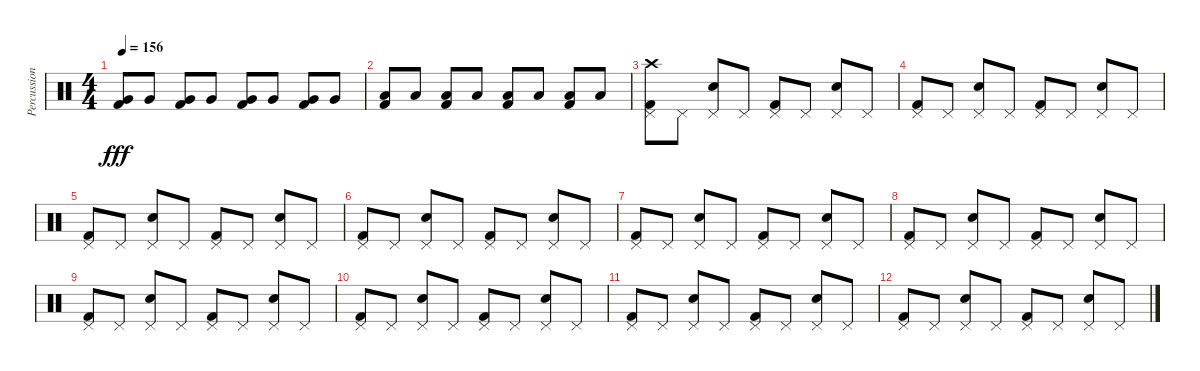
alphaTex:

\track ("Percussion" "Percussion") {instrument percussion}
\staff {score}
\articulation defaults
\ts (4 4)
\tempo 156
\clef neutral
\ks c
("Very Low Tom (hit)" "Kick (hit) 2").8{dy fff} "Very Low Tom (hit)".8 ("Very Low Tom (hit)" "Kick (hit) 2").8 "Very Low Tom (hit)".8 ("Very Low Tom (hit)" "Kick (hit) 2").8 "Very Low Tom (hit)".8 ("Very Low Tom (hit)" "Kick (hit) 2").8 "Very Low Tom (hit)".8 |
("Low Floor Tom (hit)" "Kick (hit) 2").8 "Low Floor Tom (hit)".8 ("Low Floor Tom (hit)" "Kick (hit) 2").8 "Low Floor Tom (hit)".8 ("Low Floor Tom (hit)" "Kick (hit) 2").8 "Low Floor Tom (hit)".8 ("Low Floor Tom (hit)" "Kick (hit) 2").8 "Low Floor Tom (hit)".8 |
("Pedal Hi-Hat (hit)" "Kick (hit) 2" "Crash high (hit)").8 "Pedal Hi-Hat (hit)".8 ("Pedal Hi-Hat (hit)" "Electric Snare (hit)").8 "Pedal Hi-Hat (hit)".8 ("Pedal Hi-Hat (hit)" "Kick (hit) 2").8 "Pedal Hi-Hat (hit)".8 ("Pedal Hi-Hat (hit)" "Electric Snare (hit)").8 "Pedal Hi-Hat (hit)".8 |
("Pedal Hi-Hat (hit)" "Kick (hit) 2").8 "Pedal Hi-Hat (hit)".8 ("Pedal Hi-Hat (hit)" "Electric Snare (hit)").8 "Pedal Hi-Hat (hit)".8 ("Pedal Hi-Hat (hit)" "Kick (hit) 2").8 "Pedal Hi-Hat (hit)".8 ("Pedal Hi-Hat (hit)" "Electric Snare (hit)").8 "Pedal Hi-Hat (hit)".8 |
("Pedal Hi-Hat (hit)" "Kick (hit) 2").8 "Pedal Hi-Hat (hit)".8 ("Pedal Hi-Hat (hit)" "Electric Snare (hit)").8 "Pedal Hi-Hat (hit)".8 ("Pedal Hi-Hat (hit)" "Kick (hit) 2").8 "Pedal Hi-Hat (hit)".8 ("Pedal Hi-Hat (hit)" "Electric Snare (hit)").8 "Pedal Hi-Hat (hit)".8 |
("Pedal Hi-Hat (hit)" "Kick (hit) 2").8 "Pedal Hi-Hat (hit)".8 ("Pedal Hi-Hat (hit)" "Electric Snare (hit)").8 "Pedal Hi-Hat (hit)".8 ("Pedal Hi-Hat (hit)" "Kick (hit) 2").8 "Pedal Hi-Hat (hit)".8 ("Pedal Hi-Hat (hit)" "Electric Snare (hit)").8 "Pedal Hi-Hat (hit)".8 |
("Pedal Hi-Hat (hit)" "Kick (hit) 2").8 "Pedal Hi-Hat (hit)".8 ("Pedal Hi-Hat (hit)" "Electric Snare (hit)").8 "Pedal Hi-Hat (hit)".8 ("Pedal Hi-Hat (hit)" "Kick (hit) 2").8 "Pedal Hi-Hat (hit)".8 ("Pedal Hi-Hat (hit)" "Electric Snare (hit)").8 "Pedal Hi-Hat (hit)".8 |
("Pedal Hi-Hat (hit)" "Kick (hit) 2").8 "Pedal Hi-Hat (hit)".8 ("Pedal Hi-Hat (hit)" "Electric Snare (hit)").8 "Pedal Hi-Hat (hit)".8 ("Pedal Hi-Hat (hit)" "Kick (hit) 2").8 "Pedal Hi-Hat (hit)".8 ("Pedal Hi-Hat (hit)" "Electric Snare (hit)").8 "Pedal Hi-Hat (hit)".8 |
("Pedal Hi-Hat (hit)" "Kick (hit) 2").8 "Pedal Hi-Hat (hit)".8 ("Pedal Hi-Hat (hit)" "Electric Snare (hit)").8 "Pedal Hi-Hat (hit)".8 ("Pedal Hi-Hat (hit)" "Kick (hit) 2").8 "Pedal Hi-Hat (hit)".8 ("Pedal Hi-Hat (hit)" "Electric Snare (hit)").8 "Pedal Hi-Hat (hit)".8 |
("Pedal Hi-Hat (hit)" "Kick (hit) 2").8 "Pedal Hi-Hat (hit)".8 ("Pedal Hi-Hat (hit)" "Electric Snare (hit)").8 "Pedal Hi-Hat (hit)".8 ("Pedal Hi-Hat (hit)" "Kick (hit) 2").8 "Pedal Hi-Hat (hit)".8 ("Pedal Hi-Hat (hit)" "Electric Snare (hit)").8 "Pedal Hi-Hat (hit)".8 |
("Pedal Hi-Hat (hit)" "Kick (hit) 2").8 "Pedal Hi-Hat (hit)".8 ("Pedal Hi-Hat (hit)" "Electric Snare (hit)").8 "Pedal Hi-Hat (hit)".8 ("Pedal Hi-Hat (hit)" "Kick (hit) 2").8 "Pedal Hi-Hat (hit)".8 ("Pedal Hi-Hat (hit)" "Electric Snare (hit)").8 "Pedal Hi-Hat (hit)".8 |
("Pedal Hi-Hat (hit)" "Kick (hit) 2").8 "Pedal Hi-Hat (hit)".8 ("Pedal Hi-Hat (hit)" "Electric Snare (hit)").8 "Pedal Hi-Hat (hit)".8 ("Pedal Hi-Hat (hit)" "Kick (hit) 2").8 "Pedal Hi-Hat (hit)".8 ("Pedal Hi-Hat (hit)" "Electric Snare (hit)").8 "Pedal Hi-Hat (hit)".8
